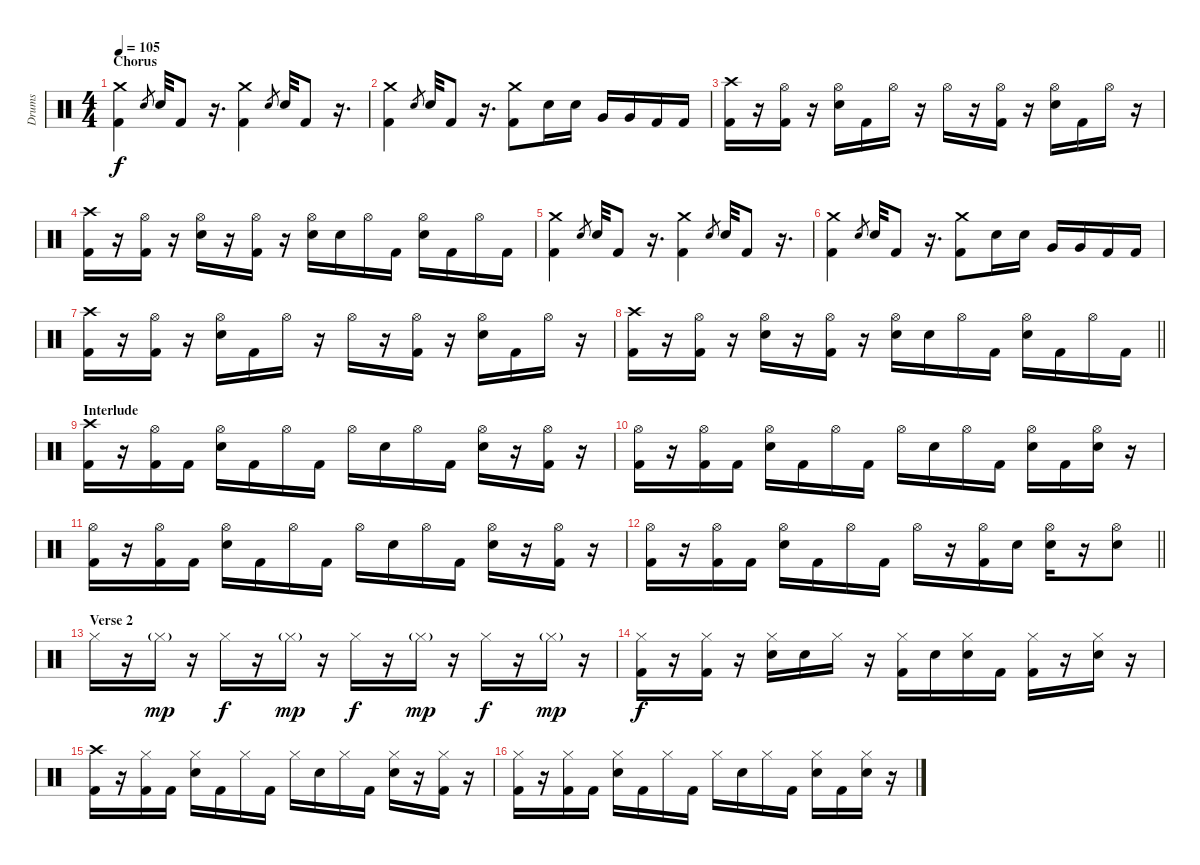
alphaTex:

\track ("Drums" "Drums") {instrument percussion}
\staff {score}
\articulation defaults
\ts (4 4)
\section ("" "Chorus")
\tempo 105
\clef neutral
\ks c
("Crash medium (hit)" "Kick (hit) 2").4{dy f} "Electric Snare (hit)".8{gr} "Electric Snare (hit)".32 "Kick (hit) 2".8 r.16{d} ("Crash medium (hit)" "Kick (hit) 2").4 "Electric Snare (hit)".8{gr} "Electric Snare (hit)".32 "Kick (hit) 2".8 r.16{d} |
("Crash medium (hit)" "Kick (hit) 2").4 "Electric Snare (hit)".8{gr} "Electric Snare (hit)".32 "Kick (hit) 2".8 r.16{d} ("Crash medium (hit)" "Kick (hit) 2").8 "Electric Snare (hit)".16 "Electric Snare (hit)".16 "Very Low Tom (hit)".16 "Very Low Tom (hit)".16 "Kick (hit) 2".16 "Kick (hit) 2".16 |
("Crash high (hit)" "Kick (hit) 2").16 r.16 ("Hi-Hat (open)" "Kick (hit) 2").16 r.16 ("Hi-Hat (open)" "Electric Snare (hit)").16 "Kick (hit) 2".16 "Hi-Hat (open)".16 r.16 "Hi-Hat (open)".16 r.16 ("Hi-Hat (open)" "Kick (hit) 2").16 r.16 ("Hi-Hat (open)" "Electric Snare (hit)").16 "Kick (hit) 2".16 "Hi-Hat (open)".16 r.16 |
("Crash high (hit)" "Kick (hit) 2").16 r.16 ("Hi-Hat (open)" "Kick (hit) 2").16 r.16 ("Hi-Hat (open)" "Electric Snare (hit)").16 r.16 ("Hi-Hat (open)" "Kick (hit) 2").16 r.16 ("Hi-Hat (open)" "Electric Snare (hit)").16 "Electric Snare (hit)".16 "Hi-Hat (open)".16 "Kick (hit) 2".16 ("Hi-Hat (open)" "Electric Snare (hit)").16 "Kick (hit) 2".16 "Hi-Hat (open)".16 "Kick (hit) 2".16 |
("Crash medium (hit)" "Kick (hit) 2").4 "Electric Snare (hit)".8{gr} "Electric Snare (hit)".32 "Kick (hit) 2".8 r.16{d} ("Crash medium (hit)" "Kick (hit) 2").4 "Electric Snare (hit)".8{gr} "Electric Snare (hit)".32 "Kick (hit) 2".8 r.16{d} |
("Crash medium (hit)" "Kick (hit) 2").4 "Electric Snare (hit)".8{gr} "Electric Snare (hit)".32 "Kick (hit) 2".8 r.16{d} ("Crash medium (hit)" "Kick (hit) 2").8 "Electric Snare (hit)".16 "Electric Snare (hit)".16 "Very Low Tom (hit)".16 "Very Low Tom (hit)".16 "Kick (hit) 2".16 "Kick (hit) 2".16 |
("Crash high (hit)" "Kick (hit) 2").16 r.16 ("Hi-Hat (open)" "Kick (hit) 2").16 r.16 ("Hi-Hat (open)" "Electric Snare (hit)").16 "Kick (hit) 2".16 "Hi-Hat (open)".16 r.16 "Hi-Hat (open)".16 r.16 ("Hi-Hat (open)" "Kick (hit) 2").16 r.16 ("Hi-Hat (open)" "Electric Snare (hit)").16 "Kick (hit) 2".16 "Hi-Hat (open)".16 r.16 |
\barLineRight lightlight
("Crash high (hit)" "Kick (hit) 2").16 r.16 ("Hi-Hat (open)" "Kick (hit) 2").16 r.16 ("Hi-Hat (open)" "Electric Snare (hit)").16 r.16 ("Hi-Hat (open)" "Kick (hit) 2").16 r.16 ("Hi-Hat (open)" "Electric Snare (hit)").16 "Electric Snare (hit)".16 "Hi-Hat (open)".16 "Kick (hit) 2".16 ("Hi-Hat (open)" "Electric Snare (hit)").16 "Kick (hit) 2".16 "Hi-Hat (open)".16 "Kick (hit) 2".16 |
\section ("" "Interlude")
("Crash high (hit)" "Kick (hit) 2").16 r.16 ("Hi-Hat (open)" "Kick (hit) 2").16 "Kick (hit) 2".16 ("Hi-Hat (open)" "Electric Snare (hit)").16 "Kick (hit) 2".16 "Hi-Hat (open)".16 "Kick (hit) 2".16 "Hi-Hat (open)".16 "Electric Snare (hit)".16 "Hi-Hat (open)".16 "Kick (hit) 2".16 ("Hi-Hat (open)" "Electric Snare (hit)").16 r.16 ("Hi-Hat (open)" "Kick (hit) 2").16 r.16 |
("Hi-Hat (open)" "Kick (hit) 2").16 r.16 ("Hi-Hat (open)" "Kick (hit) 2").16 "Kick (hit) 2".16 ("Hi-Hat (open)" "Electric Snare (hit)").16 "Kick (hit) 2".16 "Hi-Hat (open)".16 "Kick (hit) 2".16 "Hi-Hat (open)".16 "Electric Snare (hit)".16 "Hi-Hat (open)".16 "Kick (hit) 2".16 ("Hi-Hat (open)" "Electric Snare (hit)").16 "Kick (hit) 2".16 ("Hi-Hat (open)" "Electric Snare (hit)").16 r.16 |
("Hi-Hat (open)" "Kick (hit) 2").16 r.16 ("Hi-Hat (open)" "Kick (hit) 2").16 "Kick (hit) 2".16 ("Hi-Hat (open)" "Electric Snare (hit)").16 "Kick (hit) 2".16 "Hi-Hat (open)".16 "Kick (hit) 2".16 "Hi-Hat (open)".16 "Electric Snare (hit)".16 "Hi-Hat (open)".16 "Kick (hit) 2".16 ("Hi-Hat (open)" "Electric Snare (hit)").16 r.16 ("Hi-Hat (open)" "Kick (hit) 2").16 r.16 |
\barLineRight lightlight
("Hi-Hat (open)" "Kick (hit) 2").16 r.16 ("Hi-Hat (open)" "Kick (hit) 2").16 "Kick (hit) 2".16 ("Hi-Hat (open)" "Electric Snare (hit)").16 "Kick (hit) 2".16 "Hi-Hat (open)".16 "Kick (hit) 2".16 "Hi-Hat (open)".16 r.16 ("Hi-Hat (open)" "Kick (hit) 2").16 "Electric Snare (hit)".16 ("Hi-Hat (open)" "Electric Snare (hit)").16 r.16 ("Hi-Hat (open)" "Electric Snare (hit)").8 |
\section ("" "Verse 2")
"Hi-Hat (closed)".16 r.16 "Hi-Hat (closed)"{g}.16{dy mp} r.16 "Hi-Hat (closed)".16{dy f} r.16 "Hi-Hat (closed)"{g}.16{dy mp} r.16 "Hi-Hat (closed)".16{dy f} r.16 "Hi-Hat (closed)"{g}.16{dy mp} r.16 "Hi-Hat (closed)".16{dy f} r.16 "Hi-Hat (closed)"{g}.16{dy mp} r.16 |
("Hi-Hat (closed)" "Kick (hit) 2").16{dy f} r.16 ("Hi-Hat (closed)" "Kick (hit) 2").16 r.16 ("Hi-Hat (closed)" "Electric Snare (hit)").16 "Electric Snare (hit)".16 "Hi-Hat (closed)".16 r.16 ("Hi-Hat (closed)" "Kick (hit) 2").16 "Electric Snare (hit)".16 ("Hi-Hat (closed)" "Electric Snare (hit)").16 "Kick (hit) 2".16 ("Hi-Hat (closed)" "Kick (hit) 2").16 r.16 ("Hi-Hat (closed)" "Electric Snare (hit)").16 r.16 |
("Crash high (hit)" "Kick (hit) 2").16 r.16 ("Hi-Hat (closed)" "Kick (hit) 2").16 "Kick (hit) 2".16 ("Hi-Hat (closed)" "Electric Snare (hit)").16 "Kick (hit) 2".16 "Hi-Hat (closed)".16 "Kick (hit) 2".16 "Hi-Hat (closed)".16 "Electric Snare (hit)".16 "Hi-Hat (closed)".16 "Kick (hit) 2".16 ("Hi-Hat (closed)" "Electric Snare (hit)").16 r.16 ("Hi-Hat (closed)" "Kick (hit) 2").16 r.16 |
("Hi-Hat (closed)" "Kick (hit) 2").16 r.16 ("Hi-Hat (closed)" "Kick (hit) 2").16 "Kick (hit) 2".16 ("Hi-Hat (closed)" "Electric Snare (hit)").16 "Kick (hit) 2".16 "Hi-Hat (closed)".16 "Kick (hit) 2".16 "Hi-Hat (closed)".16 "Electric Snare (hit)".16 "Hi-Hat (closed)".16 "Kick (hit) 2".16 ("Hi-Hat (closed)" "Electric Snare (hit)").16 "Kick (hit) 2".16 ("Hi-Hat (closed)" "Electric Snare (hit)").16 r.16
